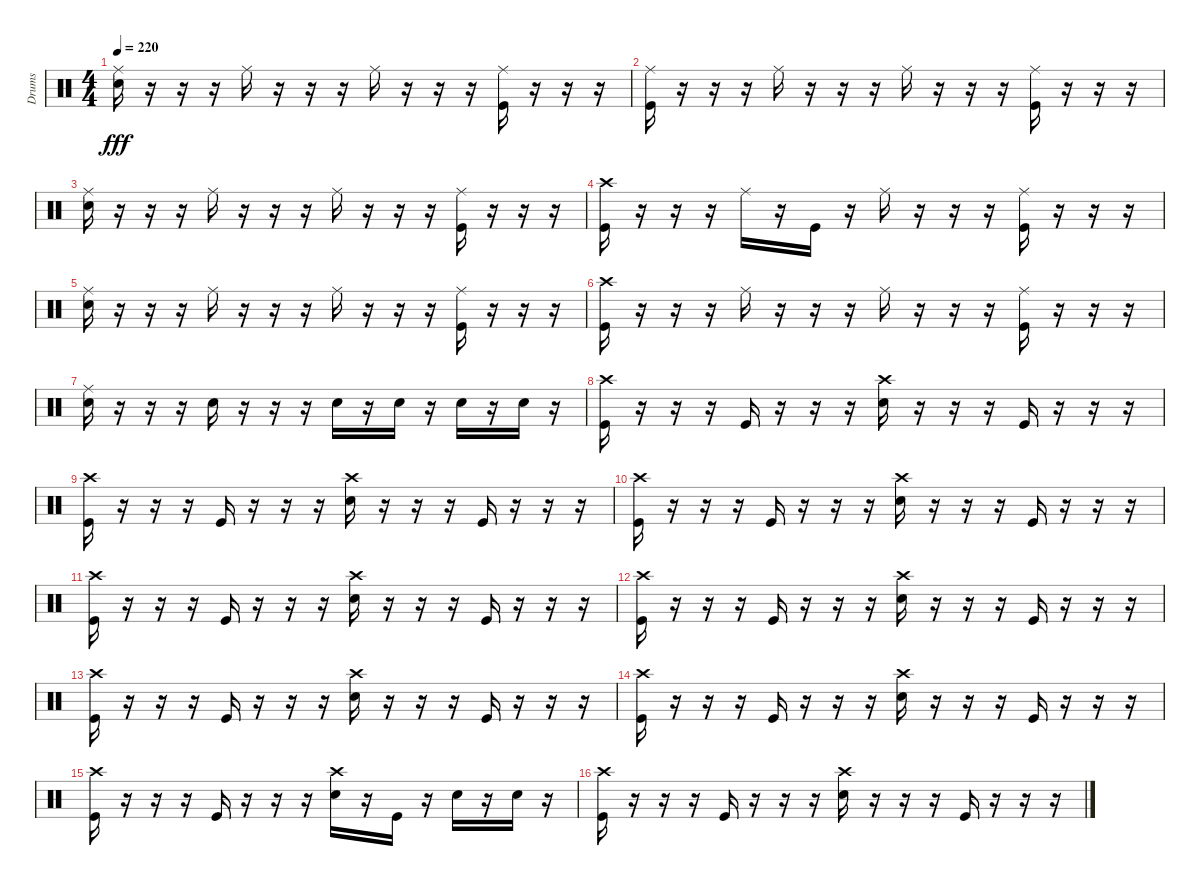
\track ("Drums" "Drums") {instrument percussion}
\staff {score}
\articulation defaults
\ts (4 4)
\tempo 220
\clef neutral
\ks c
("Ride (middle)" "Electric Snare (hit)").16{dy fff} r.16 r.16 r.16 "Ride (middle)".16 r.16 r.16 r.16 "Ride (middle)".16 r.16 r.16 r.16 ("Ride (middle)" "Kick (hit)").16 r.16 r.16 r.16 |
("Ride (middle)" "Kick (hit)").16 r.16 r.16 r.16 "Ride (middle)".16 r.16 r.16 r.16 "Ride (middle)".16 r.16 r.16 r.16 ("Ride (middle)" "Kick (hit)").16 r.16 r.16 r.16 |
("Ride (middle)" "Electric Snare (hit)").16 r.16 r.16 r.16 "Ride (middle)".16 r.16 r.16 r.16 "Ride (middle)".16 r.16 r.16 r.16 ("Ride (middle)" "Kick (hit)").16 r.16 r.16 r.16 |
("Crash high (hit)" "Kick (hit)").16 r.16 r.16 r.16 "Ride (middle)".16 r.16 "Kick (hit)".16 r.16 "Ride (middle)".16 r.16 r.16 r.16 ("Ride (middle)" "Kick (hit)").16 r.16 r.16 r.16 |
("Ride (middle)" "Electric Snare (hit)").16 r.16 r.16 r.16 "Ride (middle)".16 r.16 r.16 r.16 "Ride (middle)".16 r.16 r.16 r.16 ("Ride (middle)" "Kick (hit)").16 r.16 r.16 r.16 |
("Crash high (hit)" "Kick (hit)").16 r.16 r.16 r.16 "Ride (middle)".16 r.16 r.16 r.16 "Ride (middle)".16 r.16 r.16 r.16 ("Ride (middle)" "Kick (hit)").16 r.16 r.16 r.16 |
("Ride (middle)" "Electric Snare (hit)").16 r.16 r.16 r.16 "Electric Snare (hit)".16 r.16 r.16 r.16 "Electric Snare (hit)".16 r.16 "Electric Snare (hit)".16 r.16 "Electric Snare (hit)".16 r.16 "Electric Snare (hit)".16 r.16 |
("Crash high (hit)" "Kick (hit)").16 r.16 r.16 r.16 "Kick (hit)".16 r.16 r.16 r.16 ("Crash high (hit)" "Electric Snare (hit)").16 r.16 r.16 r.16 "Kick (hit)".16 r.16 r.16 r.16 |
("Crash high (hit)" "Kick (hit)").16 r.16 r.16 r.16 "Kick (hit)".16 r.16 r.16 r.16 ("Crash high (hit)" "Electric Snare (hit)").16 r.16 r.16 r.16 "Kick (hit)".16 r.16 r.16 r.16 |
("Crash high (hit)" "Kick (hit)").16 r.16 r.16 r.16 "Kick (hit)".16 r.16 r.16 r.16 ("Crash high (hit)" "Electric Snare (hit)").16 r.16 r.16 r.16 "Kick (hit)".16 r.16 r.16 r.16 |
("Crash high (hit)" "Kick (hit)").16 r.16 r.16 r.16 "Kick (hit)".16 r.16 r.16 r.16 ("Crash high (hit)" "Electric Snare (hit)").16 r.16 r.16 r.16 "Kick (hit)".16 r.16 r.16 r.16 |
("Crash high (hit)" "Kick (hit)").16 r.16 r.16 r.16 "Kick (hit)".16 r.16 r.16 r.16 ("Crash high (hit)" "Electric Snare (hit)").16 r.16 r.16 r.16 "Kick (hit)".16 r.16 r.16 r.16 |
("Crash high (hit)" "Kick (hit)").16 r.16 r.16 r.16 "Kick (hit)".16 r.16 r.16 r.16 ("Crash high (hit)" "Electric Snare (hit)").16 r.16 r.16 r.16 "Kick (hit)".16 r.16 r.16 r.16 |
("Crash high (hit)" "Kick (hit)").16 r.16 r.16 r.16 "Kick (hit)".16 r.16 r.16 r.16 ("Crash high (hit)" "Electric Snare (hit)").16 r.16 r.16 r.16 "Kick (hit)".16 r.16 r.16 r.16 |
("Crash high (hit)" "Kick (hit)").16 r.16 r.16 r.16 "Kick (hit)".16 r.16 r.16 r.16 ("Crash high (hit)" "Electric Snare (hit)").16 r.16 "Kick (hit)".16 r.16 "Electric Snare (hit)".16 r.16 "Electric Snare (hit)".16 r.16 |
("Crash high (hit)" "Kick (hit)").16 r.16 r.16 r.16 "Kick (hit)".16 r.16 r.16 r.16 ("Crash high (hit)" "Electric Snare (hit)").16 r.16 r.16 r.16 "Kick (hit)".16 r.16 r.16 r.16
